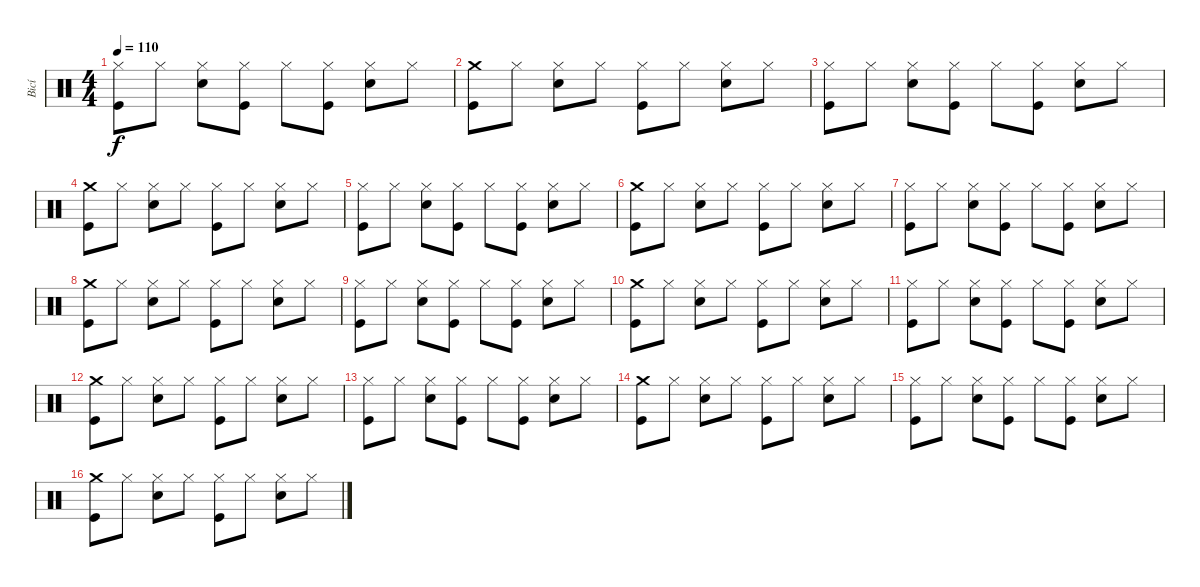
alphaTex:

\track ("Bicí" "Bicí") {instrument percussion}
\staff
\articulation defaults
\ts (4 4)
\tempo 110
\clef neutral
\ks c
("Hi-Hat (closed)" "Kick (hit)").8{dy f} "Hi-Hat (closed)".8 ("Hi-Hat (closed)" "Snare (hit) 2").8 ("Hi-Hat (closed)" "Kick (hit)").8 "Hi-Hat (closed)".8 ("Hi-Hat (closed)" "Kick (hit)").8 ("Hi-Hat (closed)" "Snare (hit) 2").8 "Hi-Hat (closed)".8 |
("Crash medium (hit)" "Kick (hit)").8 "Hi-Hat (closed)".8 ("Hi-Hat (closed)" "Snare (hit) 2").8 "Hi-Hat (closed)".8 ("Hi-Hat (closed)" "Kick (hit)").8 "Hi-Hat (closed)".8 ("Hi-Hat (closed)" "Snare (hit) 2").8 "Hi-Hat (closed)".8 |
("Hi-Hat (closed)" "Kick (hit)").8 "Hi-Hat (closed)".8 ("Hi-Hat (closed)" "Snare (hit) 2").8 ("Hi-Hat (closed)" "Kick (hit)").8 "Hi-Hat (closed)".8 ("Hi-Hat (closed)" "Kick (hit)").8 ("Hi-Hat (closed)" "Snare (hit) 2").8 "Hi-Hat (closed)".8 |
("Crash medium (hit)" "Kick (hit)").8 "Hi-Hat (closed)".8 ("Hi-Hat (closed)" "Snare (hit) 2").8 "Hi-Hat (closed)".8 ("Hi-Hat (closed)" "Kick (hit)").8 "Hi-Hat (closed)".8 ("Hi-Hat (closed)" "Snare (hit) 2").8 "Hi-Hat (closed)".8 |
("Hi-Hat (closed)" "Kick (hit)").8 "Hi-Hat (closed)".8 ("Hi-Hat (closed)" "Snare (hit) 2").8 ("Hi-Hat (closed)" "Kick (hit)").8 "Hi-Hat (closed)".8 ("Hi-Hat (closed)" "Kick (hit)").8 ("Hi-Hat (closed)" "Snare (hit) 2").8 "Hi-Hat (closed)".8 |
("Crash medium (hit)" "Kick (hit)").8 "Hi-Hat (closed)".8 ("Hi-Hat (closed)" "Snare (hit) 2").8 "Hi-Hat (closed)".8 ("Hi-Hat (closed)" "Kick (hit)").8 "Hi-Hat (closed)".8 ("Hi-Hat (closed)" "Snare (hit) 2").8 "Hi-Hat (closed)".8 |
("Hi-Hat (closed)" "Kick (hit)").8 "Hi-Hat (closed)".8 ("Hi-Hat (closed)" "Snare (hit) 2").8 ("Hi-Hat (closed)" "Kick (hit)").8 "Hi-Hat (closed)".8 ("Hi-Hat (closed)" "Kick (hit)").8 ("Hi-Hat (closed)" "Snare (hit) 2").8 "Hi-Hat (closed)".8 |
("Crash medium (hit)" "Kick (hit)").8 "Hi-Hat (closed)".8 ("Hi-Hat (closed)" "Snare (hit) 2").8 "Hi-Hat (closed)".8 ("Hi-Hat (closed)" "Kick (hit)").8 "Hi-Hat (closed)".8 ("Hi-Hat (closed)" "Snare (hit) 2").8 "Hi-Hat (closed)".8 |
("Hi-Hat (closed)" "Kick (hit)").8 "Hi-Hat (closed)".8 ("Hi-Hat (closed)" "Snare (hit) 2").8 ("Hi-Hat (closed)" "Kick (hit)").8 "Hi-Hat (closed)".8 ("Hi-Hat (closed)" "Kick (hit)").8 ("Hi-Hat (closed)" "Snare (hit) 2").8 "Hi-Hat (closed)".8 |
("Crash medium (hit)" "Kick (hit)").8 "Hi-Hat (closed)".8 ("Hi-Hat (closed)" "Snare (hit) 2").8 "Hi-Hat (closed)".8 ("Hi-Hat (closed)" "Kick (hit)").8 "Hi-Hat (closed)".8 ("Hi-Hat (closed)" "Snare (hit) 2").8 "Hi-Hat (closed)".8 |
("Hi-Hat (closed)" "Kick (hit)").8 "Hi-Hat (closed)".8 ("Hi-Hat (closed)" "Snare (hit) 2").8 ("Hi-Hat (closed)" "Kick (hit)").8 "Hi-Hat (closed)".8 ("Hi-Hat (closed)" "Kick (hit)").8 ("Hi-Hat (closed)" "Snare (hit) 2").8 "Hi-Hat (closed)".8 |
("Crash medium (hit)" "Kick (hit)").8 "Hi-Hat (closed)".8 ("Hi-Hat (closed)" "Snare (hit) 2").8 "Hi-Hat (closed)".8 ("Hi-Hat (closed)" "Kick (hit)").8 "Hi-Hat (closed)".8 ("Hi-Hat (closed)" "Snare (hit) 2").8 "Hi-Hat (closed)".8 |
("Hi-Hat (closed)" "Kick (hit)").8 "Hi-Hat (closed)".8 ("Hi-Hat (closed)" "Snare (hit) 2").8 ("Hi-Hat (closed)" "Kick (hit)").8 "Hi-Hat (closed)".8 ("Hi-Hat (closed)" "Kick (hit)").8 ("Hi-Hat (closed)" "Snare (hit) 2").8 "Hi-Hat (closed)".8 |
("Crash medium (hit)" "Kick (hit)").8 "Hi-Hat (closed)".8 ("Hi-Hat (closed)" "Snare (hit) 2").8 "Hi-Hat (closed)".8 ("Hi-Hat (closed)" "Kick (hit)").8 "Hi-Hat (closed)".8 ("Hi-Hat (closed)" "Snare (hit) 2").8 "Hi-Hat (closed)".8 |
("Hi-Hat (closed)" "Kick (hit)").8 "Hi-Hat (closed)".8 ("Hi-Hat (closed)" "Snare (hit) 2").8 ("Hi-Hat (closed)" "Kick (hit)").8 "Hi-Hat (closed)".8 ("Hi-Hat (closed)" "Kick (hit)").8 ("Hi-Hat (closed)" "Snare (hit) 2").8 "Hi-Hat (closed)".8 |
("Crash medium (hit)" "Kick (hit)").8 "Hi-Hat (closed)".8 ("Hi-Hat (closed)" "Snare (hit) 2").8 "Hi-Hat (closed)".8 ("Hi-Hat (closed)" "Kick (hit)").8 "Hi-Hat (closed)".8 ("Hi-Hat (closed)" "Snare (hit) 2").8 "Hi-Hat (closed)".8
